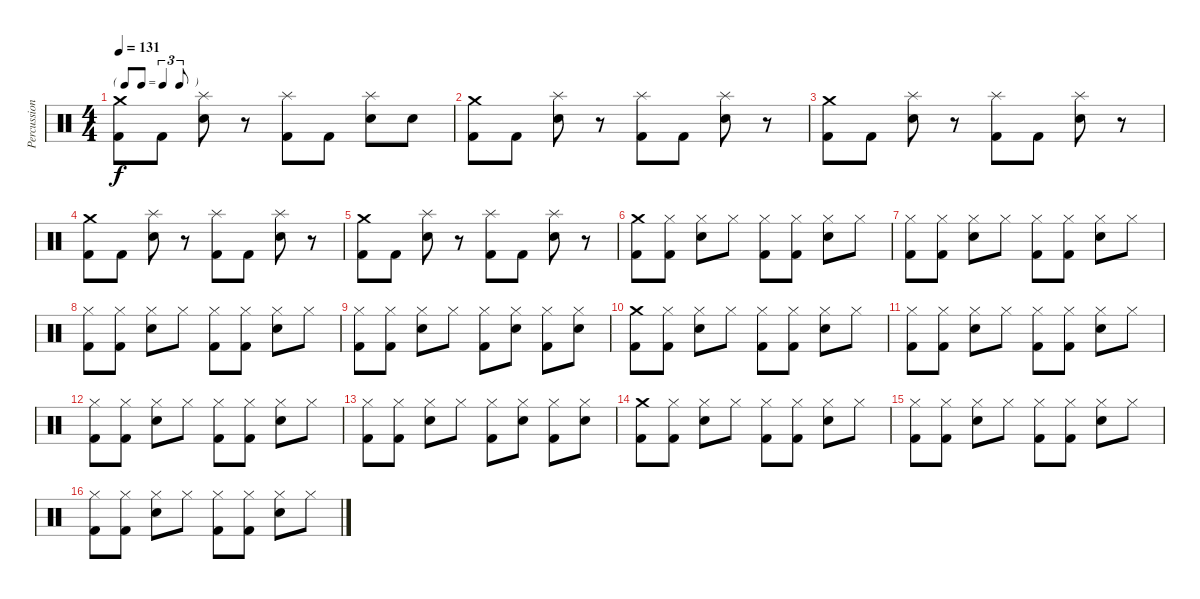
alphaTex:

\track ("Percussioni" "Percussion") {instrument percussion}
\staff {score}
\articulation defaults
\ts (4 4)
\tf triplet8th
\tempo 131
\clef neutral
\ks c
("Crash medium (hit)" "Kick (hit) 2").8{dy f} "Kick (hit) 2".8 ("Splash (hit)" "Electric Snare (hit)").8 r.8 ("Splash (hit)" "Kick (hit) 2").8 "Kick (hit) 2".8 ("Splash (hit)" "Electric Snare (hit)").8 "Electric Snare (hit)".8 |
("Crash medium (hit)" "Kick (hit) 2").8 "Kick (hit) 2".8 ("Splash (hit)" "Electric Snare (hit)").8 r.8 ("Splash (hit)" "Kick (hit) 2").8 "Kick (hit) 2".8 ("Splash (hit)" "Electric Snare (hit)").8 r.8 |
("Crash medium (hit)" "Kick (hit) 2").8 "Kick (hit) 2".8 ("Splash (hit)" "Electric Snare (hit)").8 r.8 ("Splash (hit)" "Kick (hit) 2").8 "Kick (hit) 2".8 ("Splash (hit)" "Electric Snare (hit)").8 r.8 |
("Crash medium (hit)" "Kick (hit) 2").8 "Kick (hit) 2".8 ("Splash (hit)" "Electric Snare (hit)").8 r.8 ("Splash (hit)" "Kick (hit) 2").8 "Kick (hit) 2".8 ("Splash (hit)" "Electric Snare (hit)").8 r.8 |
("Crash medium (hit)" "Kick (hit) 2").8 "Kick (hit) 2".8 ("Splash (hit)" "Electric Snare (hit)").8 r.8 ("Splash (hit)" "Kick (hit) 2").8 "Kick (hit) 2".8 ("Splash (hit)" "Electric Snare (hit)").8 r.8 |
("Crash medium (hit)" "Kick (hit) 2").8 ("Hi-Hat (closed)" "Kick (hit) 2").8 ("Hi-Hat (closed)" "Electric Snare (hit)").8 "Hi-Hat (closed)".8 ("Hi-Hat (closed)" "Kick (hit) 2").8 ("Hi-Hat (closed)" "Kick (hit) 2").8 ("Hi-Hat (closed)" "Electric Snare (hit)").8 "Hi-Hat (closed)".8 |
("Hi-Hat (closed)" "Kick (hit) 2").8 ("Hi-Hat (closed)" "Kick (hit) 2").8 ("Hi-Hat (closed)" "Electric Snare (hit)").8 "Hi-Hat (closed)".8 ("Hi-Hat (closed)" "Kick (hit) 2").8 ("Hi-Hat (closed)" "Kick (hit) 2").8 ("Hi-Hat (closed)" "Electric Snare (hit)").8 "Hi-Hat (closed)".8 |
("Hi-Hat (closed)" "Kick (hit) 2").8 ("Hi-Hat (closed)" "Kick (hit) 2").8 ("Hi-Hat (closed)" "Electric Snare (hit)").8 "Hi-Hat (closed)".8 ("Hi-Hat (closed)" "Kick (hit) 2").8 ("Hi-Hat (closed)" "Kick (hit) 2").8 ("Hi-Hat (closed)" "Electric Snare (hit)").8 "Hi-Hat (closed)".8 |
("Hi-Hat (closed)" "Kick (hit) 2").8 ("Hi-Hat (closed)" "Kick (hit) 2").8 ("Hi-Hat (closed)" "Electric Snare (hit)").8 "Hi-Hat (closed)".8 ("Hi-Hat (closed)" "Kick (hit) 2").8 ("Hi-Hat (closed)" "Electric Snare (hit)").8 ("Hi-Hat (closed)" "Kick (hit) 2").8 ("Hi-Hat (closed)" "Electric Snare (hit)").8 |
("Crash medium (hit)" "Kick (hit) 2").8 ("Hi-Hat (closed)" "Kick (hit) 2").8 ("Hi-Hat (closed)" "Electric Snare (hit)").8 "Hi-Hat (closed)".8 ("Hi-Hat (closed)" "Kick (hit) 2").8 ("Hi-Hat (closed)" "Kick (hit) 2").8 ("Hi-Hat (closed)" "Electric Snare (hit)").8 "Hi-Hat (closed)".8 |
("Hi-Hat (closed)" "Kick (hit) 2").8 ("Hi-Hat (closed)" "Kick (hit) 2").8 ("Hi-Hat (closed)" "Electric Snare (hit)").8 "Hi-Hat (closed)".8 ("Hi-Hat (closed)" "Kick (hit) 2").8 ("Hi-Hat (closed)" "Kick (hit) 2").8 ("Hi-Hat (closed)" "Electric Snare (hit)").8 "Hi-Hat (closed)".8 |
("Hi-Hat (closed)" "Kick (hit) 2").8 ("Hi-Hat (closed)" "Kick (hit) 2").8 ("Hi-Hat (closed)" "Electric Snare (hit)").8 "Hi-Hat (closed)".8 ("Hi-Hat (closed)" "Kick (hit) 2").8 ("Hi-Hat (closed)" "Kick (hit) 2").8 ("Hi-Hat (closed)" "Electric Snare (hit)").8 "Hi-Hat (closed)".8 |
("Hi-Hat (closed)" "Kick (hit) 2").8 ("Hi-Hat (closed)" "Kick (hit) 2").8 ("Hi-Hat (closed)" "Electric Snare (hit)").8 "Hi-Hat (closed)".8 ("Hi-Hat (closed)" "Kick (hit) 2").8 ("Hi-Hat (closed)" "Electric Snare (hit)").8 ("Hi-Hat (closed)" "Kick (hit) 2").8 ("Hi-Hat (closed)" "Electric Snare (hit)").8 |
("Crash medium (hit)" "Kick (hit) 2").8 ("Hi-Hat (closed)" "Kick (hit) 2").8 ("Hi-Hat (closed)" "Electric Snare (hit)").8 "Hi-Hat (closed)".8 ("Hi-Hat (closed)" "Kick (hit) 2").8 ("Hi-Hat (closed)" "Kick (hit) 2").8 ("Hi-Hat (closed)" "Electric Snare (hit)").8 "Hi-Hat (closed)".8 |
("Hi-Hat (closed)" "Kick (hit) 2").8 ("Hi-Hat (closed)" "Kick (hit) 2").8 ("Hi-Hat (closed)" "Electric Snare (hit)").8 "Hi-Hat (closed)".8 ("Hi-Hat (closed)" "Kick (hit) 2").8 ("Hi-Hat (closed)" "Kick (hit) 2").8 ("Hi-Hat (closed)" "Electric Snare (hit)").8 "Hi-Hat (closed)".8 |
("Hi-Hat (closed)" "Kick (hit) 2").8 ("Hi-Hat (closed)" "Kick (hit) 2").8 ("Hi-Hat (closed)" "Electric Snare (hit)").8 "Hi-Hat (closed)".8 ("Hi-Hat (closed)" "Kick (hit) 2").8 ("Hi-Hat (closed)" "Kick (hit) 2").8 ("Hi-Hat (closed)" "Electric Snare (hit)").8 "Hi-Hat (closed)".8
